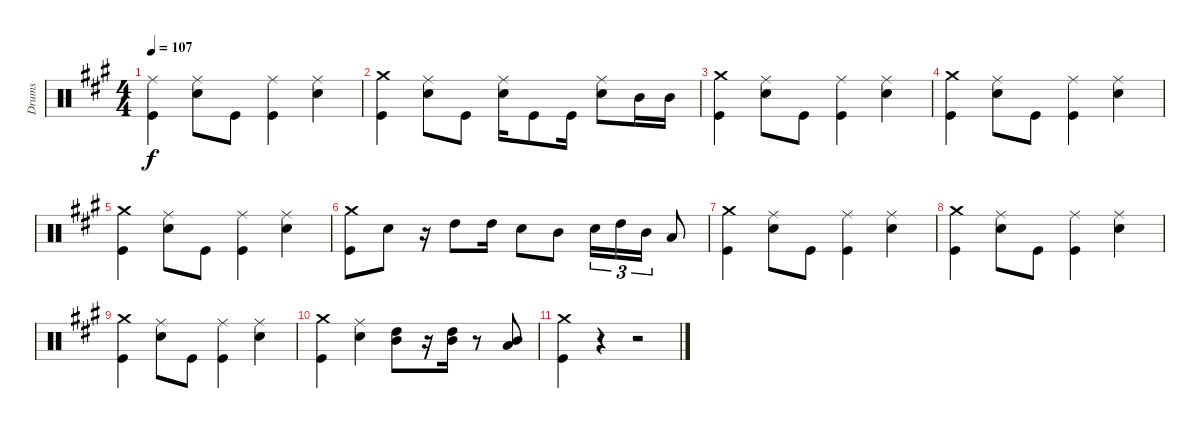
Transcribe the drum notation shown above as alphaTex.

\track ("Drums" "Drums") {instrument percussion}
\staff {score}
\articulation defaults
\ts (4 4)
\tempo 107
\clef neutral
\ks a
("Ride (middle)" "Kick (hit)").4{dy f} ("Ride (middle)" "Snare (hit) 2").8 "Kick (hit)".8 ("Ride (middle)" "Kick (hit)").4 ("Ride (middle)" "Snare (hit) 2").4 |
("Crash medium (hit)" "Kick (hit)").4 ("Ride (middle)" "Snare (hit) 2").8 "Kick (hit)".8 ("Ride (middle)" "Snare (hit) 2").16 "Kick (hit)".8 "Kick (hit)".16 ("Ride (middle)" "Snare (hit) 2").8 "Mid Tom (hit)".16 "Mid Tom (hit)".16 |
("Crash medium (hit)" "Kick (hit)").4 ("Ride (middle)" "Snare (hit) 2").8 "Kick (hit)".8 ("Ride (middle)" "Kick (hit)").4 ("Ride (middle)" "Snare (hit) 2").4 |
("Crash medium (hit)" "Kick (hit)").4 ("Ride (middle)" "Snare (hit) 2").8 "Kick (hit)".8 ("Ride (middle)" "Kick (hit)").4 ("Ride (middle)" "Snare (hit) 2").4 |
("Crash medium (hit)" "Kick (hit)").4 ("Ride (middle)" "Snare (hit) 2").8 "Kick (hit)".8 ("Ride (middle)" "Kick (hit)").4 ("Ride (middle)" "Snare (hit) 2").4 |
("Crash medium (hit)" "Kick (hit)").8 "Snare (hit) 2".8 r.16 "High Tom (hit)".8 "High Tom (hit)".16 "Snare (hit) 2".8 "Mid Tom (hit)".8 "Snare (hit) 2".16{tu (3 2)} "High Tom (hit)".16{tu (3 2)} "Mid Tom (hit)".16{tu (3 2)} "Low Tom (hit)".8 |
("Crash medium (hit)" "Kick (hit)").4 ("Ride (middle)" "Snare (hit) 2").8 "Kick (hit)".8 ("Ride (middle)" "Kick (hit)").4 ("Ride (middle)" "Snare (hit) 2").4 |
("Crash medium (hit)" "Kick (hit)").4 ("Ride (middle)" "Snare (hit) 2").8 "Kick (hit)".8 ("Ride (middle)" "Kick (hit)").4 ("Ride (middle)" "Snare (hit) 2").4 |
("Crash medium (hit)" "Kick (hit)").4 ("Ride (middle)" "Snare (hit) 2").8 "Kick (hit)".8 ("Ride (middle)" "Kick (hit)").4 ("Ride (middle)" "Snare (hit) 2").4 |
("Crash medium (hit)" "Kick (hit)").4 ("Ride (middle)" "Snare (hit) 2").4 ("High Tom (hit)" "Mid Tom (hit)").8 r.16 ("High Tom (hit)" "Mid Tom (hit)").16 r.8 ("Mid Tom (hit)" "Low Tom (hit)").8 |
("Crash medium (hit)" "Kick (hit)").4 r.4 r.2
